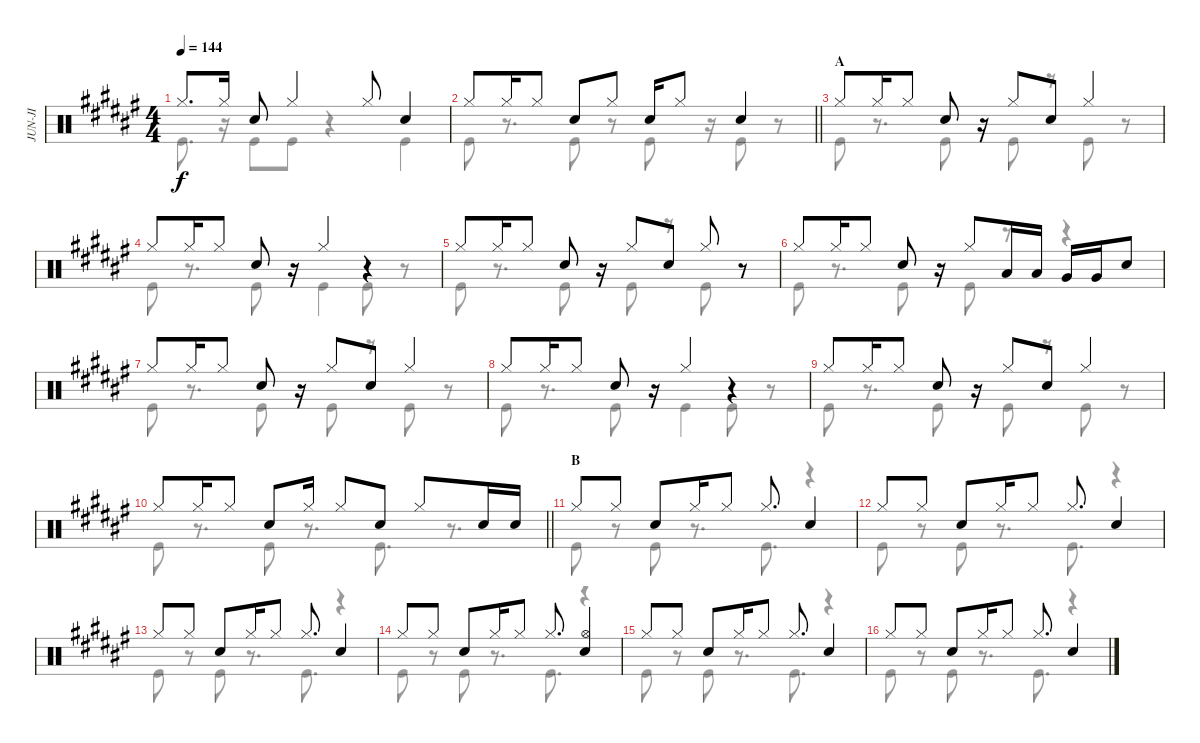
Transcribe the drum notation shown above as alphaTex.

\track ("JUN-JI" "JUN-JI") {instrument percussion}
\staff {score}
\articulation defaults
\voice
\ts (4 4)
\tempo 144
\clef neutral
\ks d#minor "Hi-Hat (closed)".8{d dy f} "Hi-Hat (closed)".16 "Snare (hit) 2".8 "Hi-Hat (closed)".4 "Hi-Hat (closed)".8 "Snare (hit) 2".4
|
\barLineRight lightlight "Hi-Hat (closed)".8 "Hi-Hat (closed)".16 "Hi-Hat (closed)".8 "Snare (hit) 2".8 "Hi-Hat (closed)".8 "Snare (hit) 2".16 "Hi-Hat (closed)".8 "Snare (hit) 2".4
|
\section ("" "A")
"Hi-Hat (closed)".8 "Hi-Hat (closed)".16 "Hi-Hat (closed)".8 "Snare (hit) 2".8 r.16 "Hi-Hat (closed)".8 "Snare (hit) 2".8 "Hi-Hat (closed)".4 |
"Hi-Hat (closed)".8 "Hi-Hat (closed)".16 "Hi-Hat (closed)".8 "Snare (hit) 2".8 r.16 "Hi-Hat (closed)".4 r.4 |
"Hi-Hat (closed)".8 "Hi-Hat (closed)".16 "Hi-Hat (closed)".8 "Snare (hit) 2".8 r.16 "Hi-Hat (closed)".8 "Snare (hit) 2".8 "Hi-Hat (closed)".8 r.8 |
"Hi-Hat (closed)".8 "Hi-Hat (closed)".16 "Hi-Hat (closed)".8 "Snare (hit) 2".8 r.16 "Hi-Hat (closed)".8 "Low Tom (hit)".16 "Low Tom (hit)".16 "Very Low Tom (hit)".16 "Very Low Tom (hit)".16 "Snare (hit) 2".8 |
"Hi-Hat (closed)".8 "Hi-Hat (closed)".16 "Hi-Hat (closed)".8 "Snare (hit) 2".8 r.16 "Hi-Hat (closed)".8 "Snare (hit) 2".8 "Hi-Hat (closed)".4 |
"Hi-Hat (closed)".8 "Hi-Hat (closed)".16 "Hi-Hat (closed)".8 "Snare (hit) 2".8 r.16 "Hi-Hat (closed)".4 r.4 |
"Hi-Hat (closed)".8 "Hi-Hat (closed)".16 "Hi-Hat (closed)".8 "Snare (hit) 2".8 r.16 "Hi-Hat (closed)".8 "Snare (hit) 2".8 "Hi-Hat (closed)".4 |
\barLineRight lightlight "Hi-Hat (closed)".8 "Hi-Hat (closed)".16 "Hi-Hat (closed)".8 "Snare (hit) 2".8 "Hi-Hat (closed)".16 "Hi-Hat (closed)".8 "Snare (hit) 2".8 "Hi-Hat (closed)".8 "Snare (hit) 2".16 "Snare (hit) 2".16
|
\section ("" "B")
"Hi-Hat (closed)".8 "Hi-Hat (closed)".8 "Snare (hit) 2".8 "Hi-Hat (closed)".16 "Hi-Hat (closed)".8 "Hi-Hat (closed)".8{d} "Snare (hit) 2".4 |
"Hi-Hat (closed)".8 "Hi-Hat (closed)".8 "Snare (hit) 2".8 "Hi-Hat (closed)".16 "Hi-Hat (closed)".8 "Hi-Hat (closed)".8{d} "Snare (hit) 2".4 |
"Hi-Hat (closed)".8 "Hi-Hat (closed)".8 "Snare (hit) 2".8 "Hi-Hat (closed)".16 "Hi-Hat (closed)".8 "Hi-Hat (closed)".8{d} "Snare (hit) 2".4 |
"Hi-Hat (closed)".8 "Hi-Hat (closed)".8 "Snare (hit) 2".8 "Hi-Hat (closed)".16 "Hi-Hat (closed)".8 "Hi-Hat (closed)".8{d} ("Hi-Hat (open)" "Snare (hit) 2").4 |
"Hi-Hat (closed)".8 "Hi-Hat (closed)".8 "Snare (hit) 2".8 "Hi-Hat (closed)".16 "Hi-Hat (closed)".8 "Hi-Hat (closed)".8{d} "Snare (hit) 2".4 |
"Hi-Hat (closed)".8 "Hi-Hat (closed)".8 "Snare (hit) 2".8 "Hi-Hat (closed)".16 "Hi-Hat (closed)".8 "Hi-Hat (closed)".8{d} "Snare (hit) 2".4
\voice
\clef neutral
\ottava regular
\simile none
\ks d#minor "Kick (hit)".8{d dy f}
r.16 "Kick (hit)".8 "Kick (hit)".8 r.4 "Kick (hit)".4 |
\barLineRight lightlight "Kick (hit)".8
r.8{d} "Kick (hit)".8 r.8 "Kick (hit)".8 r.16 "Kick (hit)".8 r.8 |
"Kick (hit)".8 r.8{d} "Kick (hit)".8 r.16 "Kick (hit)".8 r.8 "Kick (hit)".8 r.8 |
"Kick (hit)".8 r.8{d} "Kick (hit)".8 r.16 "Kick (hit)".4 "Kick (hit)".8 r.8 |
"Kick (hit)".8 r.8{d} "Kick (hit)".8 r.16 "Kick (hit)".8 r.8 "Kick (hit)".8 r.8 |
"Kick (hit)".8 r.8{d} "Kick (hit)".8 r.16 "Kick (hit)".8 r.8 r.4 |
"Kick (hit)".8 r.8{d} "Kick (hit)".8 r.16 "Kick (hit)".8 r.8 "Kick (hit)".8 r.8 |
"Kick (hit)".8 r.8{d} "Kick (hit)".8 r.16 "Kick (hit)".4 "Kick (hit)".8 r.8 |
"Kick (hit)".8 r.8{d} "Kick (hit)".8 r.16 "Kick (hit)".8 r.8 "Kick (hit)".8 r.8 |
\barLineRight lightlight "Kick (hit)".8
r.8{d} "Kick (hit)".8 r.8{d} "Kick (hit)".8{d} r.8{d} |
"Kick (hit)".8 r.8 "Kick (hit)".8 r.8{d} "Kick (hit)".8{d} r.4 |
"Kick (hit)".8 r.8 "Kick (hit)".8 r.8{d} "Kick (hit)".8{d} r.4 |
"Kick (hit)".8 r.8 "Kick (hit)".8 r.8{d} "Kick (hit)".8{d} r.4 |
"Kick (hit)".8 r.8 "Kick (hit)".8 r.8{d} "Kick (hit)".8{d} r.4 |
"Kick (hit)".8 r.8 "Kick (hit)".8 r.8{d} "Kick (hit)".8{d} r.4 |
"Kick (hit)".8 r.8 "Kick (hit)".8 r.8{d} "Kick (hit)".8{d} r.4
